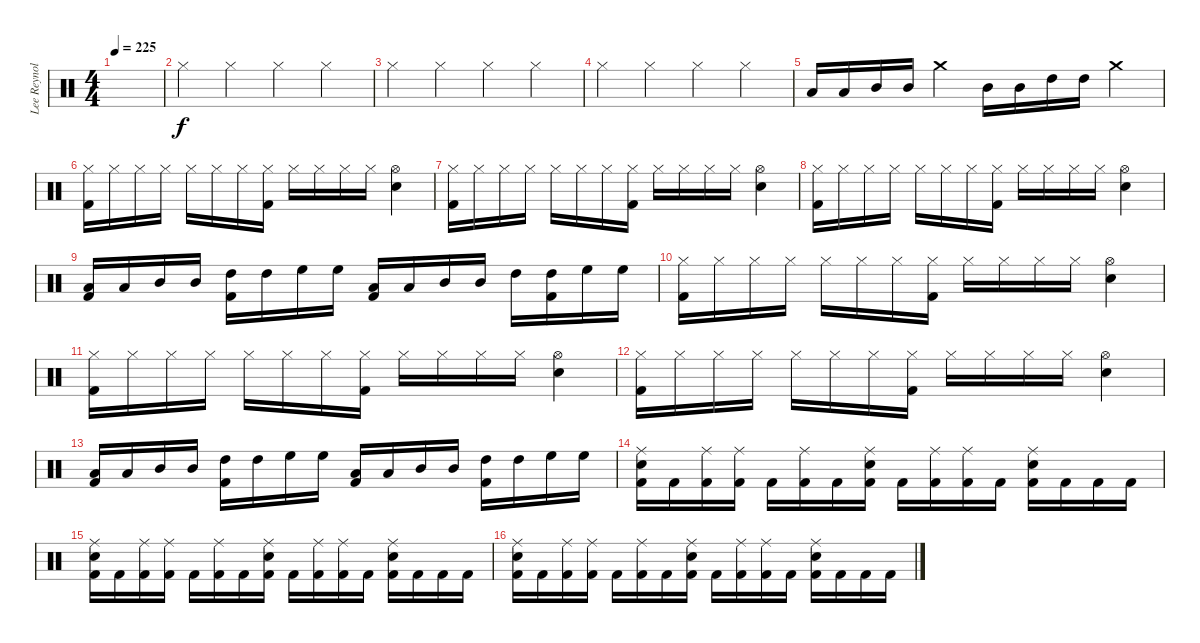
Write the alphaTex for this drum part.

\track ("Lee Reynolds" "Lee Reynol") {instrument percussion}
\staff {score}
\articulation defaults
\ts (4 4)
\tempo 225
\clef neutral
\ks c
|
"Hi-Hat (closed)".4 "Hi-Hat (closed)".4 "Hi-Hat (closed)".4 "Hi-Hat (closed)".4 |
"Hi-Hat (closed)".4 "Hi-Hat (closed)".4 "Hi-Hat (closed)".4 "Hi-Hat (closed)".4 |
"Hi-Hat (closed)".4 "Hi-Hat (closed)".4 "Hi-Hat (closed)".4 "Hi-Hat (closed)".4 |
"Low Tom (hit)".16 "Low Tom (hit)".16 "Mid Tom (hit)".16 "Mid Tom (hit)".16 "Crash medium (hit)".4 "Mid Tom (hit)".16 "Mid Tom (hit)".16 "High Tom (hit)".16 "High Tom (hit)".16 "Crash medium (hit)".4 |
("Hi-Hat (closed)" "Kick (hit) 2").16 "Hi-Hat (closed)".16 "Hi-Hat (closed)".16 "Hi-Hat (closed)".16 "Hi-Hat (closed)".16 "Hi-Hat (closed)".16 "Hi-Hat (closed)".16 ("Hi-Hat (closed)" "Kick (hit) 2").16 "Hi-Hat (closed)".16 "Hi-Hat (closed)".16 "Hi-Hat (closed)".16 "Hi-Hat (closed)".16 ("Hi-Hat (open)" "Snare (hit) 2").4 |
("Hi-Hat (closed)" "Kick (hit) 2").16 "Hi-Hat (closed)".16 "Hi-Hat (closed)".16 "Hi-Hat (closed)".16 "Hi-Hat (closed)".16 "Hi-Hat (closed)".16 "Hi-Hat (closed)".16 ("Hi-Hat (closed)" "Kick (hit) 2").16 "Hi-Hat (closed)".16 "Hi-Hat (closed)".16 "Hi-Hat (closed)".16 "Hi-Hat (closed)".16 ("Hi-Hat (open)" "Snare (hit) 2").4 |
("Hi-Hat (closed)" "Kick (hit) 2").16 "Hi-Hat (closed)".16 "Hi-Hat (closed)".16 "Hi-Hat (closed)".16 "Hi-Hat (closed)".16 "Hi-Hat (closed)".16 "Hi-Hat (closed)".16 ("Hi-Hat (closed)" "Kick (hit) 2").16 "Hi-Hat (closed)".16 "Hi-Hat (closed)".16 "Hi-Hat (closed)".16 "Hi-Hat (closed)".16 ("Hi-Hat (open)" "Snare (hit) 2").4 |
("Low Tom (hit)" "Kick (hit) 2").16 "Low Tom (hit)".16 "Mid Tom (hit)".16 "Mid Tom (hit)".16 ("High Tom (hit)" "Kick (hit) 2").16 "High Tom (hit)".16 "High Floor Tom (hit)".16 "High Floor Tom (hit)".16 ("Low Tom (hit)" "Kick (hit) 2").16 "Low Tom (hit)".16 "Mid Tom (hit)".16 "Mid Tom (hit)".16 "High Tom (hit)".16 ("High Tom (hit)" "Kick (hit) 2").16 "High Floor Tom (hit)".16 "High Floor Tom (hit)".16 |
("Hi-Hat (closed)" "Kick (hit) 2").16 "Hi-Hat (closed)".16 "Hi-Hat (closed)".16 "Hi-Hat (closed)".16 "Hi-Hat (closed)".16 "Hi-Hat (closed)".16 "Hi-Hat (closed)".16 ("Hi-Hat (closed)" "Kick (hit) 2").16 "Hi-Hat (closed)".16 "Hi-Hat (closed)".16 "Hi-Hat (closed)".16 "Hi-Hat (closed)".16 ("Hi-Hat (open)" "Snare (hit) 2").4 |
("Hi-Hat (closed)" "Kick (hit) 2").16 "Hi-Hat (closed)".16 "Hi-Hat (closed)".16 "Hi-Hat (closed)".16 "Hi-Hat (closed)".16 "Hi-Hat (closed)".16 "Hi-Hat (closed)".16 ("Hi-Hat (closed)" "Kick (hit) 2").16 "Hi-Hat (closed)".16 "Hi-Hat (closed)".16 "Hi-Hat (closed)".16 "Hi-Hat (closed)".16 ("Hi-Hat (open)" "Snare (hit) 2").4 |
("Hi-Hat (closed)" "Kick (hit) 2").16 "Hi-Hat (closed)".16 "Hi-Hat (closed)".16 "Hi-Hat (closed)".16 "Hi-Hat (closed)".16 "Hi-Hat (closed)".16 "Hi-Hat (closed)".16 ("Hi-Hat (closed)" "Kick (hit) 2").16 "Hi-Hat (closed)".16 "Hi-Hat (closed)".16 "Hi-Hat (closed)".16 "Hi-Hat (closed)".16 ("Hi-Hat (open)" "Snare (hit) 2").4 |
("Low Tom (hit)" "Kick (hit) 2").16 "Low Tom (hit)".16 "Mid Tom (hit)".16 "Mid Tom (hit)".16 ("High Tom (hit)" "Kick (hit) 2").16 "High Tom (hit)".16 "High Floor Tom (hit)".16 "High Floor Tom (hit)".16 ("Low Tom (hit)" "Kick (hit) 2").16 "Low Tom (hit)".16 "Mid Tom (hit)".16 "Mid Tom (hit)".16 ("High Tom (hit)" "Kick (hit) 2").16 "High Tom (hit)".16 "High Floor Tom (hit)".16 "High Floor Tom (hit)".16 |
("Ride (middle)" "Snare (hit) 2" "Kick (hit) 2").16 "Kick (hit) 2".16 ("Ride (middle)" "Kick (hit) 2").16 ("Ride (middle)" "Kick (hit) 2").16 "Kick (hit) 2".16 ("Ride (middle)" "Kick (hit) 2").16 "Kick (hit) 2".16 ("Ride (middle)" "Snare (hit) 2" "Kick (hit) 2").16 "Kick (hit) 2".16 ("Ride (middle)" "Kick (hit) 2").16 ("Ride (middle)" "Kick (hit) 2").16 "Kick (hit) 2".16 ("Ride (middle)" "Snare (hit) 2" "Kick (hit) 2").16 "Kick (hit) 2".16 "Kick (hit) 2".16 "Kick (hit) 2".16 |
("Ride (middle)" "Snare (hit) 2" "Kick (hit) 2").16 "Kick (hit) 2".16 ("Ride (middle)" "Kick (hit) 2").16 ("Ride (middle)" "Kick (hit) 2").16 "Kick (hit) 2".16 ("Ride (middle)" "Kick (hit) 2").16 "Kick (hit) 2".16 ("Ride (middle)" "Snare (hit) 2" "Kick (hit) 2").16 "Kick (hit) 2".16 ("Ride (middle)" "Kick (hit) 2").16 ("Ride (middle)" "Kick (hit) 2").16 "Kick (hit) 2".16 ("Ride (middle)" "Snare (hit) 2" "Kick (hit) 2").16 "Kick (hit) 2".16 "Kick (hit) 2".16 "Kick (hit) 2".16 |
("Ride (middle)" "Snare (hit) 2" "Kick (hit) 2").16 "Kick (hit) 2".16 ("Ride (middle)" "Kick (hit) 2").16 ("Ride (middle)" "Kick (hit) 2").16 "Kick (hit) 2".16 ("Ride (middle)" "Kick (hit) 2").16 "Kick (hit) 2".16 ("Ride (middle)" "Snare (hit) 2" "Kick (hit) 2").16 "Kick (hit) 2".16 ("Ride (middle)" "Kick (hit) 2").16 ("Ride (middle)" "Kick (hit) 2").16 "Kick (hit) 2".16 ("Ride (middle)" "Snare (hit) 2" "Kick (hit) 2").16 "Kick (hit) 2".16 "Kick (hit) 2".16 "Kick (hit) 2".16
